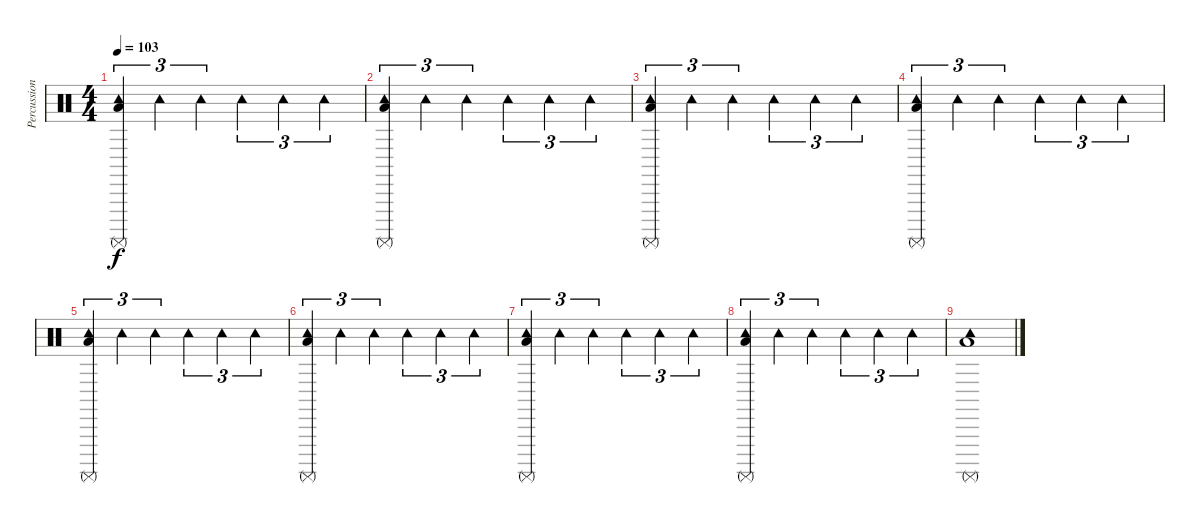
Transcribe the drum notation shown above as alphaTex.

\track ("Percussion" "Percussion") {instrument percussion}
\staff {score}
\articulation defaults
\ts (4 4)
\tempo 103
\clef neutral
\ks c
("Tambourine (hit)" "Low Floor Tom (hit)" "Surdo (mute)").4{tu (3 2) dy f} "Tambourine (hit)".4{tu (3 2)} "Tambourine (hit)".4{tu (3 2)} "Tambourine (hit)".4{tu (3 2)} "Tambourine (hit)".4{tu (3 2)} "Tambourine (hit)".4{tu (3 2)} |
("Tambourine (hit)" "Low Floor Tom (hit)" "Surdo (mute)").4{tu (3 2)} "Tambourine (hit)".4{tu (3 2)} "Tambourine (hit)".4{tu (3 2)} "Tambourine (hit)".4{tu (3 2)} "Tambourine (hit)".4{tu (3 2)} "Tambourine (hit)".4{tu (3 2)} |
("Tambourine (hit)" "Low Floor Tom (hit)" "Surdo (mute)").4{tu (3 2)} "Tambourine (hit)".4{tu (3 2)} "Tambourine (hit)".4{tu (3 2)} "Tambourine (hit)".4{tu (3 2)} "Tambourine (hit)".4{tu (3 2)} "Tambourine (hit)".4{tu (3 2)} |
("Tambourine (hit)" "Low Floor Tom (hit)" "Surdo (mute)").4{tu (3 2)} "Tambourine (hit)".4{tu (3 2)} "Tambourine (hit)".4{tu (3 2)} "Tambourine (hit)".4{tu (3 2)} "Tambourine (hit)".4{tu (3 2)} "Tambourine (hit)".4{tu (3 2)} |
("Tambourine (hit)" "Low Floor Tom (hit)" "Surdo (mute)").4{tu (3 2)} "Tambourine (hit)".4{tu (3 2)} "Tambourine (hit)".4{tu (3 2)} "Tambourine (hit)".4{tu (3 2)} "Tambourine (hit)".4{tu (3 2)} "Tambourine (hit)".4{tu (3 2)} |
("Tambourine (hit)" "Low Floor Tom (hit)" "Surdo (mute)").4{tu (3 2)} "Tambourine (hit)".4{tu (3 2)} "Tambourine (hit)".4{tu (3 2)} "Tambourine (hit)".4{tu (3 2)} "Tambourine (hit)".4{tu (3 2)} "Tambourine (hit)".4{tu (3 2)} |
("Tambourine (hit)" "Low Floor Tom (hit)" "Surdo (mute)").4{tu (3 2)} "Tambourine (hit)".4{tu (3 2)} "Tambourine (hit)".4{tu (3 2)} "Tambourine (hit)".4{tu (3 2)} "Tambourine (hit)".4{tu (3 2)} "Tambourine (hit)".4{tu (3 2)} |
("Tambourine (hit)" "Low Floor Tom (hit)" "Surdo (mute)").4{tu (3 2)} "Tambourine (hit)".4{tu (3 2)} "Tambourine (hit)".4{tu (3 2)} "Tambourine (hit)".4{tu (3 2)} "Tambourine (hit)".4{tu (3 2)} "Tambourine (hit)".4{tu (3 2)} |
("Tambourine (hit)" "Low Floor Tom (hit)" "Surdo (mute)").1
